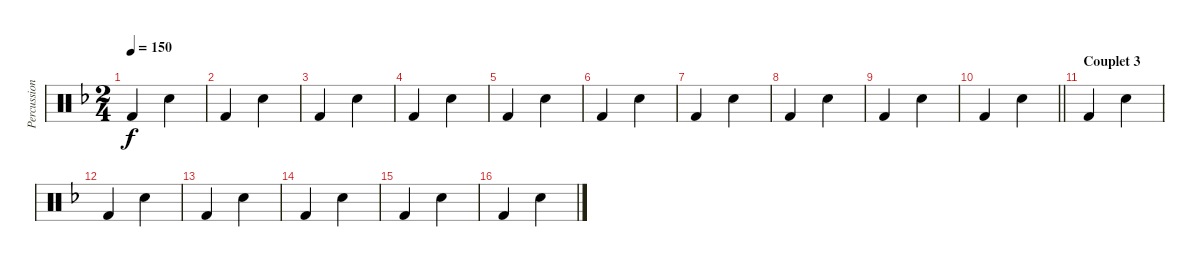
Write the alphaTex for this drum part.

\track ("Percussions" "Percussion") {instrument percussion}
\staff {score}
\articulation defaults
\ts (2 4)
\tempo 150
\clef neutral
\ks f "Kick (hit) 2".4{dy f} "Snare (hit) 2".4
|
"Kick (hit) 2".4 "Snare (hit) 2".4 |
"Kick (hit) 2".4 "Snare (hit) 2".4 |
"Kick (hit) 2".4 "Snare (hit) 2".4 |
"Kick (hit) 2".4 "Snare (hit) 2".4 |
"Kick (hit) 2".4 "Snare (hit) 2".4 |
"Kick (hit) 2".4 "Snare (hit) 2".4 |
"Kick (hit) 2".4 "Snare (hit) 2".4 |
"Kick (hit) 2".4 "Snare (hit) 2".4 |
\barLineRight lightlight "Kick (hit) 2".4 "Snare (hit) 2".4
|
\section ("" "Couplet 3")
"Kick (hit) 2".4 "Snare (hit) 2".4 |
"Kick (hit) 2".4 "Snare (hit) 2".4 |
"Kick (hit) 2".4 "Snare (hit) 2".4 |
"Kick (hit) 2".4 "Snare (hit) 2".4 |
"Kick (hit) 2".4 "Snare (hit) 2".4 |
"Kick (hit) 2".4 "Snare (hit) 2".4
